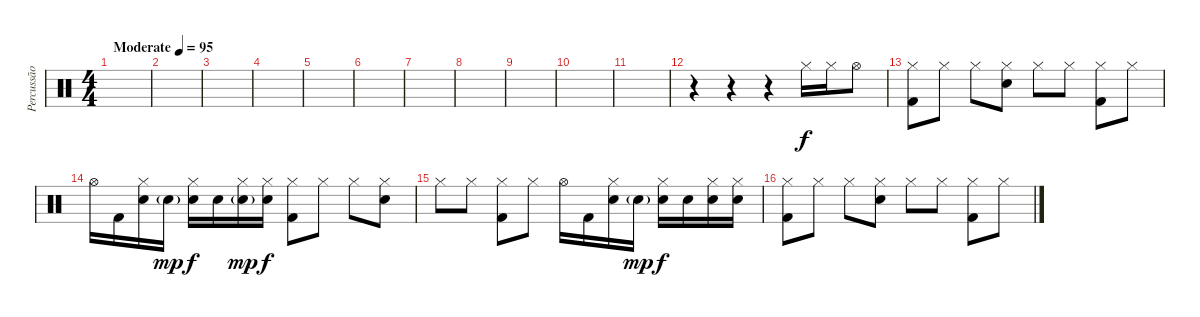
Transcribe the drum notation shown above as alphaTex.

\track ("Percussão" "Percussão") {instrument percussion}
\staff {score}
\articulation defaults
\ts (4 4)
\tempo (95 "Moderate")
\clef neutral
\ks c
|
|
|
|
|
|
|
|
|
|
|
r.4 r.4 r.4 "Hi-Hat (closed)".16 "Hi-Hat (closed)".16 "Hi-Hat (open)".8 |
("Kick (hit) 2" "Hi-Hat (closed)").8 "Hi-Hat (closed)".8 "Hi-Hat (closed)".8 ("Snare (hit) 2" "Hi-Hat (closed)").8 "Hi-Hat (closed)".8 "Hi-Hat (closed)".8 ("Kick (hit) 2" "Hi-Hat (closed)").8 "Hi-Hat (closed)".8 |
"Hi-Hat (open)".16 "Kick (hit) 2".16 ("Snare (hit) 2" "Hi-Hat (closed)").16 "Electric Snare (hit)"{g}.16{dy mp} ("Electric Snare (hit)" "Hi-Hat (closed)").16{dy f} "Snare (hit) 2".16 ("Electric Snare (hit)"{g} "Hi-Hat (closed)").16{dy mp} ("Snare (hit) 2" "Hi-Hat (closed)").16{dy f} ("Kick (hit) 2" "Hi-Hat (closed)").8 "Hi-Hat (closed)".8 "Hi-Hat (closed)".8 ("Snare (hit) 2" "Hi-Hat (closed)").8 |
"Hi-Hat (closed)".8 "Hi-Hat (closed)".8 ("Kick (hit) 2" "Hi-Hat (closed)").8 "Hi-Hat (closed)".8 "Hi-Hat (open)".16 "Kick (hit) 2".16 ("Snare (hit) 2" "Hi-Hat (closed)").16 "Electric Snare (hit)"{g}.16{dy mp} ("Electric Snare (hit)" "Hi-Hat (closed)").16{dy f} "Snare (hit) 2".16 ("Electric Snare (hit)" "Hi-Hat (closed)").16 ("Snare (hit) 2" "Hi-Hat (closed)").16 |
("Kick (hit) 2" "Hi-Hat (closed)").8 "Hi-Hat (closed)".8 "Hi-Hat (closed)".8 ("Snare (hit) 2" "Hi-Hat (closed)").8 "Hi-Hat (closed)".8 "Hi-Hat (closed)".8 ("Kick (hit) 2" "Hi-Hat (closed)").8 "Hi-Hat (closed)".8
